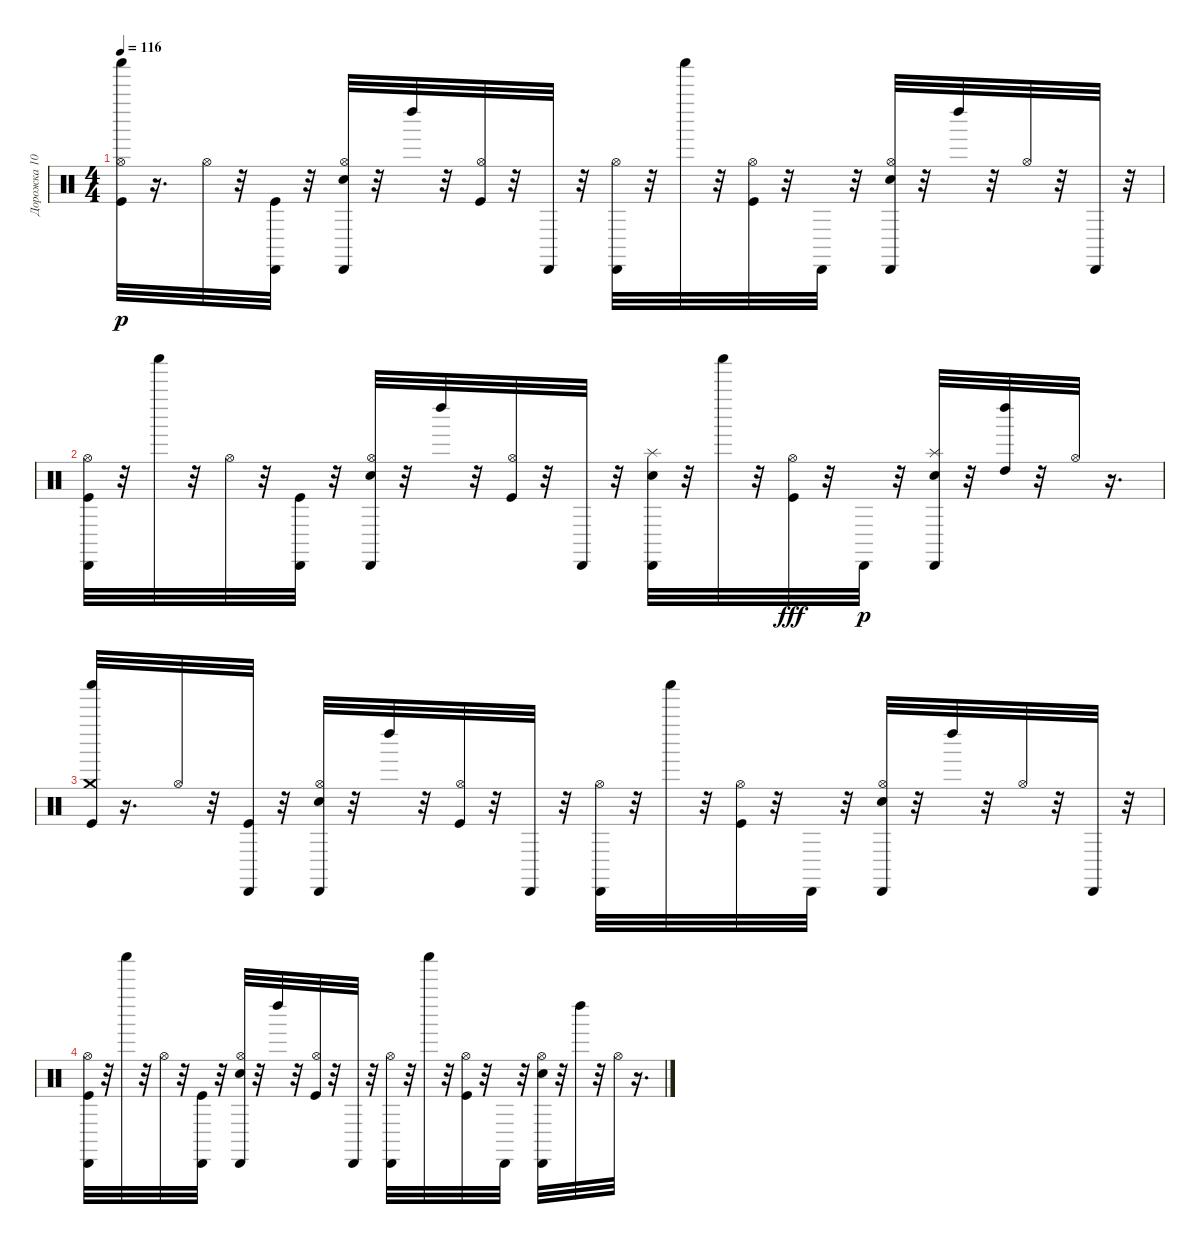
\track ("Дорожка 10" "Дорожка 10") {instrument percussion}
\staff {score}
\articulation defaults
\ts (4 4)
\tempo 116
\clef neutral
\ks c
("Kick (hit)" "Hi-Hat (open)" "Shaker (hit)").32{dy p} r.16{d} "Hi-Hat (open)".32 r.32 ("Kick (hit)" "Cabasa (hit)").32 r.32 ("Electric Snare (hit)" "Hi-Hat (open)" "Cabasa (hit)").32 r.32 "Left Maraca (hit)".32 r.32 ("Kick (hit)" "Hi-Hat (open)").32 r.32 "Cabasa (hit)".32 r.32 ("Hi-Hat (open)" "Cabasa (hit)").32 r.32 "Shaker (hit)".32 r.32 ("Kick (hit)" "Hi-Hat (open)").32 r.32 "Cabasa (hit)".32 r.32 ("Electric Snare (hit)" "Hi-Hat (open)" "Cabasa (hit)").32 r.32 "Left Maraca (hit)".32 r.32 "Hi-Hat (open)".32 r.32 "Cabasa (hit)".32 r.32 |
("Kick (hit)" "Hi-Hat (open)" "Cabasa (hit)").32 r.32 "Shaker (hit)".32 r.32 "Hi-Hat (open)".32 r.32 ("Kick (hit)" "Cabasa (hit)").32 r.32 ("Electric Snare (hit)" "Hi-Hat (open)" "Cabasa (hit)").32 r.32 "Left Maraca (hit)".32 r.32 ("Kick (hit)" "Hi-Hat (open)").32 r.32 "Cabasa (hit)".32 r.32 ("Electric Snare (hit)" "Splash (hit)" "Cabasa (hit)").32 r.32 "Shaker (hit)".32 r.32 ("Hi-Hat (open)" "Kick (hit)").32{dy fff} r.32 "Cabasa (hit)".32{dy p} r.32 ("Electric Snare (hit)" "Splash (hit)" "Cabasa (hit)").32 r.32 ("High Tom (hit)" "Left Maraca (hit)").32 r.32 "Hi-Hat (open)".32 r.16{d} |
("Kick (hit)" "Crash medium (hit)" "Shaker (hit)").32 r.16{d} "Hi-Hat (open)".32 r.32 ("Kick (hit)" "Cabasa (hit)").32 r.32 ("Electric Snare (hit)" "Hi-Hat (open)" "Cabasa (hit)").32 r.32 "Left Maraca (hit)".32 r.32 ("Kick (hit)" "Hi-Hat (open)").32 r.32 "Cabasa (hit)".32 r.32 ("Hi-Hat (open)" "Cabasa (hit)").32 r.32 "Shaker (hit)".32 r.32 ("Kick (hit)" "Hi-Hat (open)").32 r.32 "Cabasa (hit)".32 r.32 ("Electric Snare (hit)" "Hi-Hat (open)" "Cabasa (hit)").32 r.32 "Left Maraca (hit)".32 r.32 "Hi-Hat (open)".32 r.32 "Cabasa (hit)".32 r.32 |
("Kick (hit)" "Hi-Hat (open)" "Cabasa (hit)").32 r.32 "Shaker (hit)".32 r.32 "Hi-Hat (open)".32 r.32 ("Kick (hit)" "Cabasa (hit)").32 r.32 ("Electric Snare (hit)" "Hi-Hat (open)" "Cabasa (hit)").32 r.32 "Left Maraca (hit)".32 r.32 ("Kick (hit)" "Hi-Hat (open)").32 r.32 "Cabasa (hit)".32 r.32 ("Hi-Hat (open)" "Cabasa (hit)").32 r.32 "Shaker (hit)".32 r.32 ("Hi-Hat (open)" "Kick (hit)").32 r.32 "Cabasa (hit)".32 r.32 ("Electric Snare (hit)" "Hi-Hat (open)" "Cabasa (hit)").32 r.32 "Left Maraca (hit)".32 r.32 "Hi-Hat (open)".32 r.16{d}
